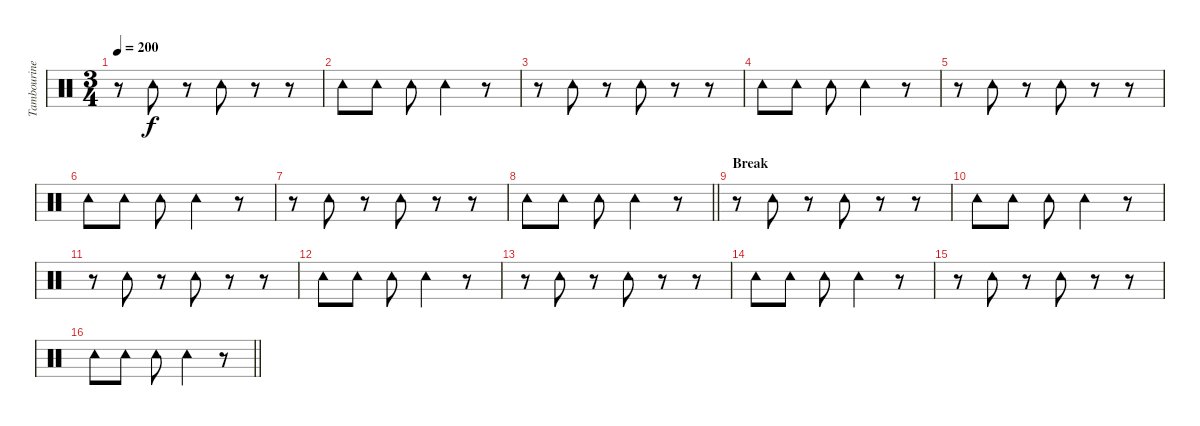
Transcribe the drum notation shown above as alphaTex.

\track ("Tambourine" "Tambourine") {instrument percussion}
\staff {score}
\articulation defaults
\ts (3 4)
\tempo 200
\clef neutral
\ks c
r.8{dy f} "Tambourine (hit)".8 r.8 "Tambourine (hit)".8 r.8 r.8 |
"Tambourine (hit)".8 "Tambourine (hit)".8 "Tambourine (hit)".8 "Tambourine (hit)".4 r.8 |
r.8 "Tambourine (hit)".8 r.8 "Tambourine (hit)".8 r.8 r.8 |
"Tambourine (hit)".8 "Tambourine (hit)".8 "Tambourine (hit)".8 "Tambourine (hit)".4 r.8 |
r.8 "Tambourine (hit)".8 r.8 "Tambourine (hit)".8 r.8 r.8 |
"Tambourine (hit)".8 "Tambourine (hit)".8 "Tambourine (hit)".8 "Tambourine (hit)".4 r.8 |
r.8 "Tambourine (hit)".8 r.8 "Tambourine (hit)".8 r.8 r.8 |
\barLineRight lightlight "Tambourine (hit)".8 "Tambourine (hit)".8 "Tambourine (hit)".8 "Tambourine (hit)".4
r.8 |
\section ("" "Break")
r.8 "Tambourine (hit)".8 r.8 "Tambourine (hit)".8 r.8 r.8 |
"Tambourine (hit)".8 "Tambourine (hit)".8 "Tambourine (hit)".8 "Tambourine (hit)".4 r.8 |
r.8 "Tambourine (hit)".8 r.8 "Tambourine (hit)".8 r.8 r.8 |
"Tambourine (hit)".8 "Tambourine (hit)".8 "Tambourine (hit)".8 "Tambourine (hit)".4 r.8 |
r.8 "Tambourine (hit)".8 r.8 "Tambourine (hit)".8 r.8 r.8 |
"Tambourine (hit)".8 "Tambourine (hit)".8 "Tambourine (hit)".8 "Tambourine (hit)".4 r.8 |
r.8 "Tambourine (hit)".8 r.8 "Tambourine (hit)".8 r.8 r.8 |
\barLineRight lightlight "Tambourine (hit)".8 "Tambourine (hit)".8 "Tambourine (hit)".8 "Tambourine (hit)".4
r.8
